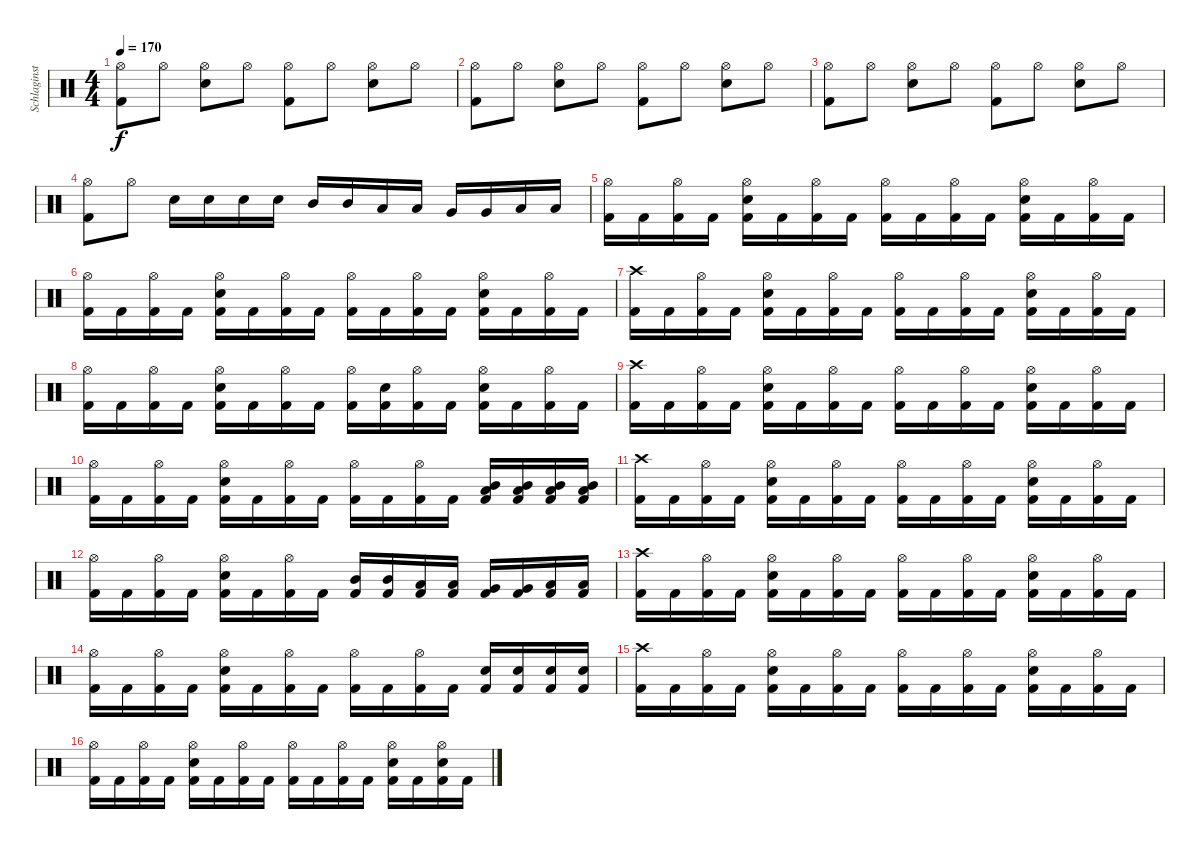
\track ("Schlaginstrumente - Auswahl" "Schlaginst") {instrument percussion}
\staff {score}
\articulation defaults
\ts (4 4)
\tempo 170
\clef neutral
\ks c
("Hi-Hat (open)" "Kick (hit) 2").8{dy f} "Hi-Hat (open)".8 ("Hi-Hat (open)" "Snare (hit) 2").8 "Hi-Hat (open)".8 ("Hi-Hat (open)" "Kick (hit) 2").8 "Hi-Hat (open)".8 ("Hi-Hat (open)" "Snare (hit) 2").8 "Hi-Hat (open)".8 |
("Hi-Hat (open)" "Kick (hit) 2").8 "Hi-Hat (open)".8 ("Hi-Hat (open)" "Snare (hit) 2").8 "Hi-Hat (open)".8 ("Hi-Hat (open)" "Kick (hit) 2").8 "Hi-Hat (open)".8 ("Hi-Hat (open)" "Snare (hit) 2").8 "Hi-Hat (open)".8 |
("Hi-Hat (open)" "Kick (hit) 2").8 "Hi-Hat (open)".8 ("Hi-Hat (open)" "Snare (hit) 2").8 "Hi-Hat (open)".8 ("Hi-Hat (open)" "Kick (hit) 2").8 "Hi-Hat (open)".8 ("Hi-Hat (open)" "Snare (hit) 2").8 "Hi-Hat (open)".8 |
("Hi-Hat (open)" "Kick (hit) 2").8 "Hi-Hat (open)".8 "Snare (hit) 2".16 "Snare (hit) 2".16 "Snare (hit) 2".16 "Snare (hit) 2".16 "Mid Tom (hit)".16 "Mid Tom (hit)".16 "Low Tom (hit)".16 "Low Tom (hit)".16 "Very Low Tom (hit)".16 "Very Low Tom (hit)".16 "Low Floor Tom (hit)".16 "Low Floor Tom (hit)".16 |
("Hi-Hat (open)" "Kick (hit) 2").16 "Kick (hit) 2".16 ("Hi-Hat (open)" "Kick (hit) 2").16 "Kick (hit) 2".16 ("Hi-Hat (open)" "Snare (hit) 2" "Kick (hit) 2").16 "Kick (hit) 2".16 ("Hi-Hat (open)" "Kick (hit) 2").16 "Kick (hit) 2".16 ("Hi-Hat (open)" "Kick (hit) 2").16 "Kick (hit) 2".16 ("Hi-Hat (open)" "Kick (hit) 2").16 "Kick (hit) 2".16 ("Hi-Hat (open)" "Snare (hit) 2" "Kick (hit) 2").16 "Kick (hit) 2".16 ("Hi-Hat (open)" "Kick (hit) 2").16 "Kick (hit) 2".16 |
("Hi-Hat (open)" "Kick (hit) 2").16 "Kick (hit) 2".16 ("Hi-Hat (open)" "Kick (hit) 2").16 "Kick (hit) 2".16 ("Hi-Hat (open)" "Snare (hit) 2" "Kick (hit) 2").16 "Kick (hit) 2".16 ("Hi-Hat (open)" "Kick (hit) 2").16 "Kick (hit) 2".16 ("Hi-Hat (open)" "Kick (hit) 2").16 "Kick (hit) 2".16 ("Hi-Hat (open)" "Kick (hit) 2").16 "Kick (hit) 2".16 ("Hi-Hat (open)" "Snare (hit) 2" "Kick (hit) 2").16 "Kick (hit) 2".16 ("Hi-Hat (open)" "Kick (hit) 2").16 "Kick (hit) 2".16 |
("Crash high (hit)" "Kick (hit) 2").16 "Kick (hit) 2".16 ("Hi-Hat (open)" "Kick (hit) 2").16 "Kick (hit) 2".16 ("Hi-Hat (open)" "Snare (hit) 2" "Kick (hit) 2").16 "Kick (hit) 2".16 ("Hi-Hat (open)" "Kick (hit) 2").16 "Kick (hit) 2".16 ("Hi-Hat (open)" "Kick (hit) 2").16 "Kick (hit) 2".16 ("Hi-Hat (open)" "Kick (hit) 2").16 "Kick (hit) 2".16 ("Hi-Hat (open)" "Snare (hit) 2" "Kick (hit) 2").16 "Kick (hit) 2".16 ("Hi-Hat (open)" "Kick (hit) 2").16 "Kick (hit) 2".16 |
("Hi-Hat (open)" "Kick (hit) 2").16 "Kick (hit) 2".16 ("Hi-Hat (open)" "Kick (hit) 2").16 "Kick (hit) 2".16 ("Hi-Hat (open)" "Snare (hit) 2" "Kick (hit) 2").16 "Kick (hit) 2".16 ("Hi-Hat (open)" "Kick (hit) 2").16 "Kick (hit) 2".16 ("Hi-Hat (open)" "Kick (hit) 2").16 ("Snare (hit) 2" "Kick (hit) 2").16 ("Hi-Hat (open)" "Kick (hit) 2").16 "Kick (hit) 2".16 ("Hi-Hat (open)" "Snare (hit) 2" "Kick (hit) 2").16 "Kick (hit) 2".16 ("Hi-Hat (open)" "Kick (hit) 2").16 "Kick (hit) 2".16 |
("Crash high (hit)" "Kick (hit) 2").16 "Kick (hit) 2".16 ("Hi-Hat (open)" "Kick (hit) 2").16 "Kick (hit) 2".16 ("Hi-Hat (open)" "Snare (hit) 2" "Kick (hit) 2").16 "Kick (hit) 2".16 ("Hi-Hat (open)" "Kick (hit) 2").16 "Kick (hit) 2".16 ("Hi-Hat (open)" "Kick (hit) 2").16 "Kick (hit) 2".16 ("Hi-Hat (open)" "Kick (hit) 2").16 "Kick (hit) 2".16 ("Hi-Hat (open)" "Snare (hit) 2" "Kick (hit) 2").16 "Kick (hit) 2".16 ("Hi-Hat (open)" "Kick (hit) 2").16 "Kick (hit) 2".16 |
("Hi-Hat (open)" "Kick (hit) 2").16 "Kick (hit) 2".16 ("Hi-Hat (open)" "Kick (hit) 2").16 "Kick (hit) 2".16 ("Hi-Hat (open)" "Snare (hit) 2" "Kick (hit) 2").16 "Kick (hit) 2".16 ("Hi-Hat (open)" "Kick (hit) 2").16 "Kick (hit) 2".16 ("Hi-Hat (open)" "Kick (hit) 2").16 "Kick (hit) 2".16 ("Hi-Hat (open)" "Kick (hit) 2").16 "Kick (hit) 2".16 ("Low Tom (hit)" "Mid Tom (hit)" "Kick (hit) 2").16 ("Low Tom (hit)" "Mid Tom (hit)" "Kick (hit) 2").16 ("Low Tom (hit)" "Mid Tom (hit)" "Kick (hit) 2").16 ("Low Tom (hit)" "Mid Tom (hit)" "Kick (hit) 2").16 |
("Crash high (hit)" "Kick (hit) 2").16 "Kick (hit) 2".16 ("Hi-Hat (open)" "Kick (hit) 2").16 "Kick (hit) 2".16 ("Hi-Hat (open)" "Snare (hit) 2" "Kick (hit) 2").16 "Kick (hit) 2".16 ("Hi-Hat (open)" "Kick (hit) 2").16 "Kick (hit) 2".16 ("Hi-Hat (open)" "Kick (hit) 2").16 "Kick (hit) 2".16 ("Hi-Hat (open)" "Kick (hit) 2").16 "Kick (hit) 2".16 ("Hi-Hat (open)" "Snare (hit) 2" "Kick (hit) 2").16 "Kick (hit) 2".16 ("Hi-Hat (open)" "Kick (hit) 2").16 "Kick (hit) 2".16 |
("Hi-Hat (open)" "Kick (hit) 2").16 "Kick (hit) 2".16 ("Hi-Hat (open)" "Kick (hit) 2").16 "Kick (hit) 2".16 ("Hi-Hat (open)" "Snare (hit) 2" "Kick (hit) 2").16 "Kick (hit) 2".16 ("Hi-Hat (open)" "Kick (hit) 2").16 "Kick (hit) 2".16 ("Mid Tom (hit)" "Kick (hit) 2").16 ("Mid Tom (hit)" "Kick (hit) 2").16 ("Low Tom (hit)" "Kick (hit) 2").16 ("Low Tom (hit)" "Kick (hit) 2").16 ("Very Low Tom (hit)" "Kick (hit) 2").16 ("Very Low Tom (hit)" "Kick (hit) 2").16 ("Low Floor Tom (hit)" "Kick (hit) 2").16 ("Low Floor Tom (hit)" "Kick (hit) 2").16 |
("Crash high (hit)" "Kick (hit) 2").16 "Kick (hit) 2".16 ("Hi-Hat (open)" "Kick (hit) 2").16 "Kick (hit) 2".16 ("Hi-Hat (open)" "Snare (hit) 2" "Kick (hit) 2").16 "Kick (hit) 2".16 ("Hi-Hat (open)" "Kick (hit) 2").16 "Kick (hit) 2".16 ("Hi-Hat (open)" "Kick (hit) 2").16 "Kick (hit) 2".16 ("Hi-Hat (open)" "Kick (hit) 2").16 "Kick (hit) 2".16 ("Hi-Hat (open)" "Snare (hit) 2" "Kick (hit) 2").16 "Kick (hit) 2".16 ("Hi-Hat (open)" "Kick (hit) 2").16 "Kick (hit) 2".16 |
("Hi-Hat (open)" "Kick (hit) 2").16 "Kick (hit) 2".16 ("Hi-Hat (open)" "Kick (hit) 2").16 "Kick (hit) 2".16 ("Hi-Hat (open)" "Snare (hit) 2" "Kick (hit) 2").16 "Kick (hit) 2".16 ("Hi-Hat (open)" "Kick (hit) 2").16 "Kick (hit) 2".16 ("Hi-Hat (open)" "Kick (hit) 2").16 "Kick (hit) 2".16 ("Hi-Hat (open)" "Kick (hit) 2").16 "Kick (hit) 2".16 ("Snare (hit) 2" "Kick (hit) 2").16 ("Snare (hit) 2" "Kick (hit) 2").16 ("Snare (hit) 2" "Kick (hit) 2").16 ("Snare (hit) 2" "Kick (hit) 2").16 |
("Crash high (hit)" "Kick (hit) 2").16 "Kick (hit) 2".16 ("Hi-Hat (open)" "Kick (hit) 2").16 "Kick (hit) 2".16 ("Hi-Hat (open)" "Snare (hit) 2" "Kick (hit) 2").16 "Kick (hit) 2".16 ("Hi-Hat (open)" "Kick (hit) 2").16 "Kick (hit) 2".16 ("Hi-Hat (open)" "Kick (hit) 2").16 "Kick (hit) 2".16 ("Hi-Hat (open)" "Kick (hit) 2").16 "Kick (hit) 2".16 ("Hi-Hat (open)" "Snare (hit) 2" "Kick (hit) 2").16 "Kick (hit) 2".16 ("Hi-Hat (open)" "Kick (hit) 2").16 "Kick (hit) 2".16 |
("Hi-Hat (open)" "Kick (hit) 2").16 "Kick (hit) 2".16 ("Hi-Hat (open)" "Kick (hit) 2").16 "Kick (hit) 2".16 ("Hi-Hat (open)" "Snare (hit) 2" "Kick (hit) 2").16 "Kick (hit) 2".16 ("Hi-Hat (open)" "Kick (hit) 2").16 "Kick (hit) 2".16 ("Hi-Hat (open)" "Kick (hit) 2").16 "Kick (hit) 2".16 ("Hi-Hat (open)" "Kick (hit) 2").16 "Kick (hit) 2".16 ("Hi-Hat (open)" "Snare (hit) 2" "Kick (hit) 2").16 "Kick (hit) 2".16 ("Hi-Hat (open)" "Snare (hit) 2" "Kick (hit) 2").16 "Kick (hit) 2".16
